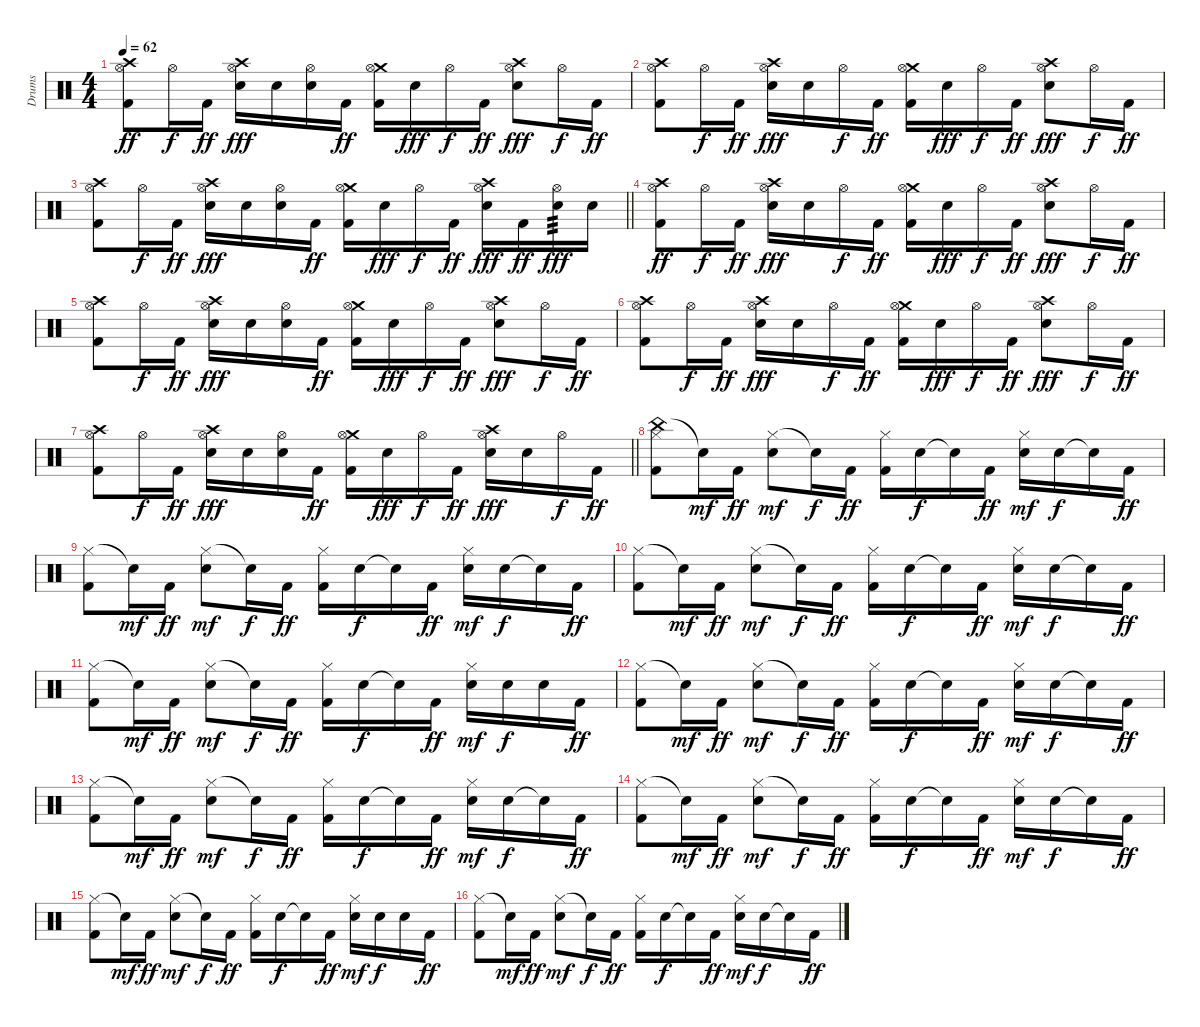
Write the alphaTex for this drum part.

\track ("Drums" "Drums") {instrument percussion}
\staff {score}
\articulation defaults
\ts (4 4)
\tempo 62
\clef neutral
\ks c
("Crash high (hit)" "Hi-Hat (open)" "Kick (hit) 2").8{dy ff} "Hi-Hat (open)".16{dy f} "Kick (hit) 2".16{dy ff} ("Crash high (hit)" "Hi-Hat (open)" "Snare (hit) 2").16{dy fff} "Snare (hit) 2".16 ("Hi-Hat (open)" "Snare (hit) 2").16 "Kick (hit) 2".16{dy ff} ("Crash medium (hit)" "Hi-Hat (open)" "Kick (hit) 2").16 "Snare (hit) 2".16{dy fff} "Hi-Hat (open)".16{dy f} "Kick (hit) 2".16{dy ff} ("Crash high (hit)" "Hi-Hat (open)" "Snare (hit) 2").8{dy fff} "Hi-Hat (open)".16{dy f} "Kick (hit) 2".16{dy ff} |
("Crash high (hit)" "Hi-Hat (open)" "Kick (hit) 2").8 "Hi-Hat (open)".16{dy f} "Kick (hit) 2".16{dy ff} ("Crash high (hit)" "Hi-Hat (open)" "Snare (hit) 2").16{dy fff} "Snare (hit) 2".16 "Hi-Hat (open)".16{dy f} "Kick (hit) 2".16{dy ff} ("Crash medium (hit)" "Hi-Hat (open)" "Kick (hit) 2").16 "Snare (hit) 2".16{dy fff} "Hi-Hat (open)".16{dy f} "Kick (hit) 2".16{dy ff} ("Crash high (hit)" "Hi-Hat (open)" "Snare (hit) 2").8{dy fff} "Hi-Hat (open)".16{dy f} "Kick (hit) 2".16{dy ff} |
\barLineRight lightlight
("Crash high (hit)" "Hi-Hat (open)" "Kick (hit) 2").8 "Hi-Hat (open)".16{dy f} "Kick (hit) 2".16{dy ff} ("Crash high (hit)" "Hi-Hat (open)" "Snare (hit) 2").16{dy fff} "Snare (hit) 2".16 ("Hi-Hat (open)" "Snare (hit) 2").16 "Kick (hit) 2".16{dy ff} ("Crash medium (hit)" "Hi-Hat (open)" "Kick (hit) 2").16 "Snare (hit) 2".16{dy fff} "Hi-Hat (open)".16{dy f} "Kick (hit) 2".16{dy ff} ("Crash high (hit)" "Hi-Hat (open)" "Snare (hit) 2").16{dy fff} "Kick (hit) 2".16{dy ff} ("Hi-Hat (open)" "Snare (hit) 2").16{tp 3 dy fff} "Snare (hit) 2".16 |
\section ("" "")
("Crash high (hit)" "Hi-Hat (open)" "Kick (hit) 2").8{dy ff} "Hi-Hat (open)".16{dy f} "Kick (hit) 2".16{dy ff} ("Crash high (hit)" "Hi-Hat (open)" "Snare (hit) 2").16{dy fff} "Snare (hit) 2".16 "Hi-Hat (open)".16{dy f} "Kick (hit) 2".16{dy ff} ("Crash medium (hit)" "Hi-Hat (open)" "Kick (hit) 2").16 "Snare (hit) 2".16{dy fff} "Hi-Hat (open)".16{dy f} "Kick (hit) 2".16{dy ff} ("Crash high (hit)" "Hi-Hat (open)" "Snare (hit) 2").8{dy fff} "Hi-Hat (open)".16{dy f} "Kick (hit) 2".16{dy ff} |
("Crash high (hit)" "Hi-Hat (open)" "Kick (hit) 2").8 "Hi-Hat (open)".16{dy f} "Kick (hit) 2".16{dy ff} ("Crash high (hit)" "Hi-Hat (open)" "Snare (hit) 2").16{dy fff} "Snare (hit) 2".16 ("Hi-Hat (open)" "Snare (hit) 2").16 "Kick (hit) 2".16{dy ff} ("Crash medium (hit)" "Hi-Hat (open)" "Kick (hit) 2").16 "Snare (hit) 2".16{dy fff} "Hi-Hat (open)".16{dy f} "Kick (hit) 2".16{dy ff} ("Crash high (hit)" "Hi-Hat (open)" "Snare (hit) 2").8{dy fff} "Hi-Hat (open)".16{dy f} "Kick (hit) 2".16{dy ff} |
("Crash high (hit)" "Hi-Hat (open)" "Kick (hit) 2").8 "Hi-Hat (open)".16{dy f} "Kick (hit) 2".16{dy ff} ("Crash high (hit)" "Hi-Hat (open)" "Snare (hit) 2").16{dy fff} "Snare (hit) 2".16 "Hi-Hat (open)".16{dy f} "Kick (hit) 2".16{dy ff} ("Crash medium (hit)" "Hi-Hat (open)" "Kick (hit) 2").16 "Snare (hit) 2".16{dy fff} "Hi-Hat (open)".16{dy f} "Kick (hit) 2".16{dy ff} ("Crash high (hit)" "Hi-Hat (open)" "Snare (hit) 2").8{dy fff} "Hi-Hat (open)".16{dy f} "Kick (hit) 2".16{dy ff} |
\barLineRight lightlight
("Crash high (hit)" "Hi-Hat (open)" "Kick (hit) 2").8 "Hi-Hat (open)".16{dy f} "Kick (hit) 2".16{dy ff} ("Crash high (hit)" "Hi-Hat (open)" "Snare (hit) 2").16{dy fff} "Snare (hit) 2".16 ("Hi-Hat (open)" "Snare (hit) 2").16 "Kick (hit) 2".16{dy ff} ("Crash medium (hit)" "Hi-Hat (open)" "Kick (hit) 2").16 "Snare (hit) 2".16{dy fff} "Hi-Hat (open)".16{dy f} "Kick (hit) 2".16{dy ff} ("Crash high (hit)" "Hi-Hat (open)" "Snare (hit) 2").16{dy fff} "Snare (hit) 2".16 "Hi-Hat (open)".16{dy f} "Kick (hit) 2".16{dy ff} |
\section ("" "")
("China (hit)" "Hi-Hat (closed)" "Kick (hit) 2").8 "Snare (hit)"{t}.16{dy mf} "Kick (hit) 2".16{dy ff} ("Hi-Hat (closed)" "Snare (hit) 2").8{dy mf} "Snare (hit)"{t}.16{dy f} "Kick (hit) 2".16{dy ff} ("Hi-Hat (closed)" "Kick (hit) 2").16 "Snare (hit) 2".16{dy f} "Snare (hit)"{t}.16 "Kick (hit) 2".16{dy ff} ("Hi-Hat (closed)" "Snare (hit) 2").16{dy mf} "Snare (hit) 2".16{dy f} "Snare (hit) 2"{t}.16 "Kick (hit) 2".16{dy ff} |
("Hi-Hat (closed)" "Kick (hit) 2").8 "Snare (hit)"{t}.16{dy mf} "Kick (hit) 2".16{dy ff} ("Hi-Hat (closed)" "Snare (hit) 2").8{dy mf} "Snare (hit)"{t}.16{dy f} "Kick (hit) 2".16{dy ff} ("Hi-Hat (closed)" "Kick (hit) 2").16 "Snare (hit) 2".16{dy f} "Snare (hit)"{t}.16 "Kick (hit) 2".16{dy ff} ("Hi-Hat (closed)" "Snare (hit) 2").16{dy mf} "Snare (hit) 2".16{dy f} "Snare (hit) 2"{t}.16 "Kick (hit) 2".16{dy ff} |
("Hi-Hat (closed)" "Kick (hit) 2").8 "Snare (hit)"{t}.16{dy mf} "Kick (hit) 2".16{dy ff} ("Hi-Hat (closed)" "Snare (hit) 2").8{dy mf} "Snare (hit)"{t}.16{dy f} "Kick (hit) 2".16{dy ff} ("Hi-Hat (closed)" "Kick (hit) 2").16 "Snare (hit) 2".16{dy f} "Snare (hit)"{t}.16 "Kick (hit) 2".16{dy ff} ("Hi-Hat (closed)" "Snare (hit) 2").16{dy mf} "Snare (hit) 2".16{dy f} "Snare (hit) 2"{t}.16 "Kick (hit) 2".16{dy ff} |
("Hi-Hat (closed)" "Kick (hit) 2").8 "Snare (hit)"{t}.16{dy mf} "Kick (hit) 2".16{dy ff} ("Hi-Hat (closed)" "Snare (hit) 2").8{dy mf} "Snare (hit)"{t}.16{dy f} "Kick (hit) 2".16{dy ff} ("Hi-Hat (closed)" "Kick (hit) 2").16 "Snare (hit) 2".16{dy f} "Snare (hit)"{t}.16 "Kick (hit) 2".16{dy ff} ("Hi-Hat (closed)" "Snare (hit) 2").16{dy mf} "Snare (hit) 2".16{dy f} "Snare (hit) 2".16 "Kick (hit) 2".16{dy ff} |
("Hi-Hat (closed)" "Kick (hit) 2").8 "Snare (hit)"{t}.16{dy mf} "Kick (hit) 2".16{dy ff} ("Hi-Hat (closed)" "Snare (hit) 2").8{dy mf} "Snare (hit)"{t}.16{dy f} "Kick (hit) 2".16{dy ff} ("Hi-Hat (closed)" "Kick (hit) 2").16 "Snare (hit) 2".16{dy f} "Snare (hit)"{t}.16 "Kick (hit) 2".16{dy ff} ("Hi-Hat (closed)" "Snare (hit) 2").16{dy mf} "Snare (hit) 2".16{dy f} "Snare (hit) 2"{t}.16 "Kick (hit) 2".16{dy ff} |
("Hi-Hat (closed)" "Kick (hit) 2").8 "Snare (hit)"{t}.16{dy mf} "Kick (hit) 2".16{dy ff} ("Hi-Hat (closed)" "Snare (hit) 2").8{dy mf} "Snare (hit)"{t}.16{dy f} "Kick (hit) 2".16{dy ff} ("Hi-Hat (closed)" "Kick (hit) 2").16 "Snare (hit) 2".16{dy f} "Snare (hit)"{t}.16 "Kick (hit) 2".16{dy ff} ("Hi-Hat (closed)" "Snare (hit) 2").16{dy mf} "Snare (hit) 2".16{dy f} "Snare (hit) 2"{t}.16 "Kick (hit) 2".16{dy ff} |
("Hi-Hat (closed)" "Kick (hit) 2").8 "Snare (hit)"{t}.16{dy mf} "Kick (hit) 2".16{dy ff} ("Hi-Hat (closed)" "Snare (hit) 2").8{dy mf} "Snare (hit)"{t}.16{dy f} "Kick (hit) 2".16{dy ff} ("Hi-Hat (closed)" "Kick (hit) 2").16 "Snare (hit) 2".16{dy f} "Snare (hit)"{t}.16 "Kick (hit) 2".16{dy ff} ("Hi-Hat (closed)" "Snare (hit) 2").16{dy mf} "Snare (hit) 2".16{dy f} "Snare (hit) 2"{t}.16 "Kick (hit) 2".16{dy ff} |
("Hi-Hat (closed)" "Kick (hit) 2").8 "Snare (hit)"{t}.16{dy mf} "Kick (hit) 2".16{dy ff} ("Hi-Hat (closed)" "Snare (hit) 2").8{dy mf} "Snare (hit)"{t}.16{dy f} "Kick (hit) 2".16{dy ff} ("Hi-Hat (closed)" "Kick (hit) 2").16 "Snare (hit) 2".16{dy f} "Snare (hit)"{t}.16 "Kick (hit) 2".16{dy ff} ("Hi-Hat (closed)" "Snare (hit) 2").16{dy mf} "Snare (hit) 2".16{dy f} "Snare (hit) 2".16 "Kick (hit) 2".16{dy ff} |
("Hi-Hat (closed)" "Kick (hit) 2").8 "Snare (hit)"{t}.16{dy mf} "Kick (hit) 2".16{dy ff} ("Hi-Hat (closed)" "Snare (hit) 2").8{dy mf} "Snare (hit)"{t}.16{dy f} "Kick (hit) 2".16{dy ff} ("Hi-Hat (closed)" "Kick (hit) 2").16 "Snare (hit) 2".16{dy f} "Snare (hit)"{t}.16 "Kick (hit) 2".16{dy ff} ("Hi-Hat (closed)" "Snare (hit) 2").16{dy mf} "Snare (hit) 2".16{dy f} "Snare (hit) 2"{t}.16 "Kick (hit) 2".16{dy ff}
